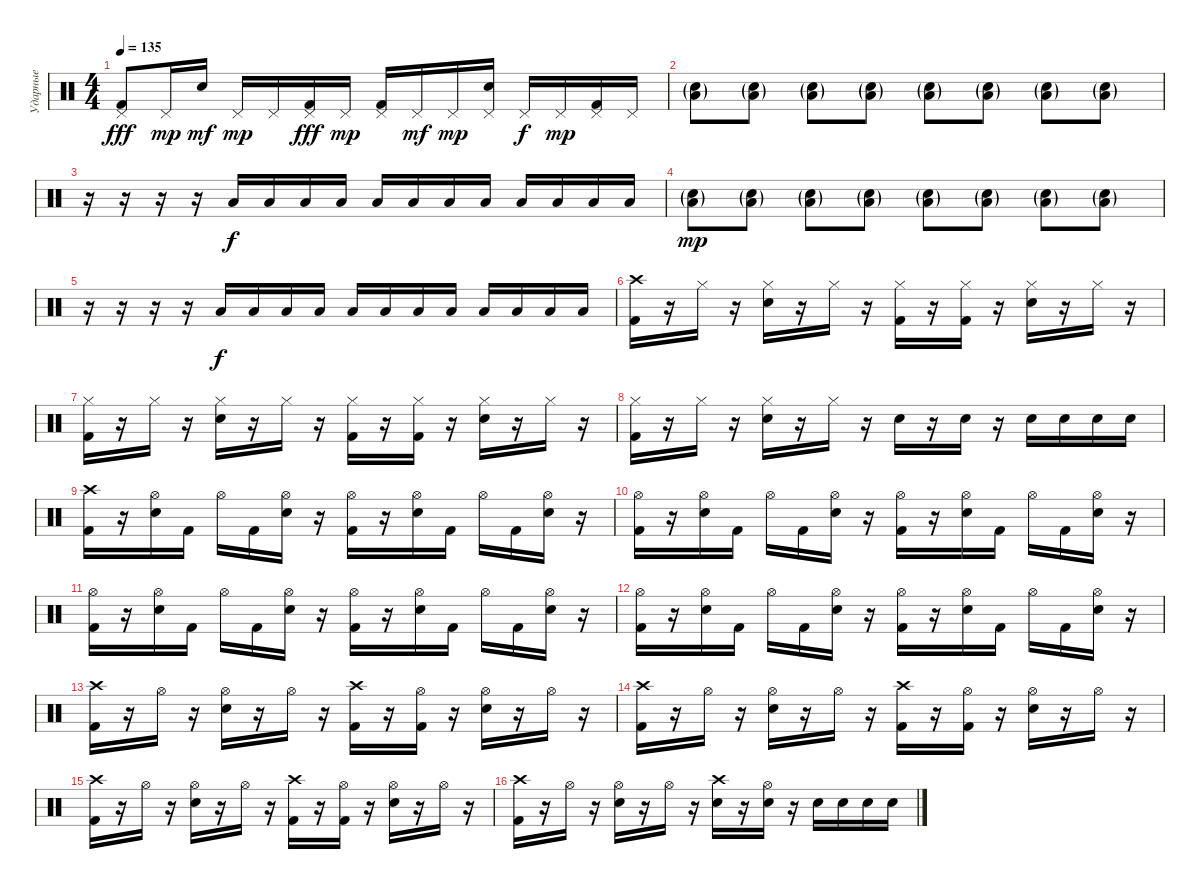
\track ("Ударные" "Ударные") {instrument percussion}
\staff {score}
\articulation defaults
\ts (4 4)
\tempo 135
\clef neutral
\ks c
("Pedal Hi-Hat (hit)" "Kick (hit) 2").8{dy fff volume 16} "Pedal Hi-Hat (hit)".16{dy mp} "Electric Snare (hit)".16{dy mf} "Pedal Hi-Hat (hit)".16{dy mp} "Pedal Hi-Hat (hit)".16 ("Pedal Hi-Hat (hit)" "Kick (hit) 2").16{dy fff} "Pedal Hi-Hat (hit)".16{dy mp} ("Pedal Hi-Hat (hit)" "Kick (hit) 2").16 "Pedal Hi-Hat (hit)".16{dy mf} "Pedal Hi-Hat (hit)".16{dy mp} ("Pedal Hi-Hat (hit)" "Electric Snare (hit)").16 "Pedal Hi-Hat (hit)".16{dy f} "Pedal Hi-Hat (hit)".16{dy mp} ("Pedal Hi-Hat (hit)" "Kick (hit) 2").16 "Pedal Hi-Hat (hit)".16 |
("Low Floor Tom (hit)"{g} "Electric Snare (hit)"{g}).8 ("Low Floor Tom (hit)"{g} "Electric Snare (hit)"{g}).8 ("Low Floor Tom (hit)"{g} "Electric Snare (hit)"{g}).8 ("Low Floor Tom (hit)"{g} "Electric Snare (hit)"{g}).8 ("Low Floor Tom (hit)"{g} "Electric Snare (hit)"{g}).8 ("Low Floor Tom (hit)"{g} "Electric Snare (hit)"{g}).8 ("Low Floor Tom (hit)"{g} "Electric Snare (hit)"{g}).8 ("Low Floor Tom (hit)"{g} "Electric Snare (hit)"{g}).8 |
r.16 r.16 r.16 r.16 "Low Tom (hit)".16{dy f} "Low Tom (hit)".16 "Low Floor Tom (hit)".16 "Low Floor Tom (hit)".16 "Low Floor Tom (hit)".16 "Low Tom (hit)".16 "Low Tom (hit)".16 "Low Tom (hit)".16 "Low Floor Tom (hit)".16 "Low Floor Tom (hit)".16 "Low Floor Tom (hit)".16 "Low Floor Tom (hit)".16 |
("Low Floor Tom (hit)"{g} "Electric Snare (hit)"{g}).8{dy mp} ("Low Floor Tom (hit)"{g} "Electric Snare (hit)"{g}).8 ("Low Floor Tom (hit)"{g} "Electric Snare (hit)"{g}).8 ("Low Floor Tom (hit)"{g} "Electric Snare (hit)"{g}).8 ("Low Floor Tom (hit)"{g} "Electric Snare (hit)"{g}).8 ("Low Floor Tom (hit)"{g} "Electric Snare (hit)"{g}).8 ("Low Floor Tom (hit)"{g} "Electric Snare (hit)"{g}).8 ("Low Floor Tom (hit)"{g} "Electric Snare (hit)"{g}).8 |
r.16 r.16 r.16 r.16 "Low Tom (hit)".16{dy f} "Low Tom (hit)".16 "Low Floor Tom (hit)".16 "Low Floor Tom (hit)".16 "Low Floor Tom (hit)".16 "Low Tom (hit)".16 "Low Tom (hit)".16 "Low Tom (hit)".16 "Low Floor Tom (hit)".16 "Low Floor Tom (hit)".16 "Low Floor Tom (hit)".16 "Low Floor Tom (hit)".16 |
("Crash high (hit)" "Kick (hit) 2").16 r.16 "Hi-Hat (closed)".16 r.16 ("Hi-Hat (closed)" "Electric Snare (hit)").16 r.16 "Hi-Hat (closed)".16 r.16 ("Hi-Hat (closed)" "Kick (hit) 2").16 r.16 ("Hi-Hat (closed)" "Kick (hit) 2").16 r.16 ("Hi-Hat (closed)" "Electric Snare (hit)").16 r.16 "Hi-Hat (closed)".16 r.16 |
("Hi-Hat (closed)" "Kick (hit) 2").16 r.16 "Hi-Hat (closed)".16 r.16 ("Hi-Hat (closed)" "Electric Snare (hit)").16 r.16 "Hi-Hat (closed)".16 r.16 ("Hi-Hat (closed)" "Kick (hit) 2").16 r.16 ("Hi-Hat (closed)" "Kick (hit) 2").16 r.16 ("Hi-Hat (closed)" "Electric Snare (hit)").16 r.16 "Hi-Hat (closed)".16 r.16 |
("Hi-Hat (closed)" "Kick (hit) 2").16 r.16 "Hi-Hat (closed)".16 r.16 ("Hi-Hat (closed)" "Electric Snare (hit)").16 r.16 "Hi-Hat (closed)".16 r.16 "Electric Snare (hit)".16 r.16 "Electric Snare (hit)".16 r.16 "Electric Snare (hit)".16 "Electric Snare (hit)".16 "Electric Snare (hit)".16 "Electric Snare (hit)".16 |
("Crash high (hit)" "Kick (hit) 2").16 r.16 ("Hi-Hat (open)" "Electric Snare (hit)").16 "Kick (hit) 2".16 "Hi-Hat (open)".16 "Kick (hit) 2".16 ("Hi-Hat (open)" "Electric Snare (hit)").16 r.16 ("Hi-Hat (open)" "Kick (hit) 2").16 r.16 ("Hi-Hat (open)" "Electric Snare (hit)").16 "Kick (hit) 2".16 "Hi-Hat (open)".16 "Kick (hit) 2".16 ("Hi-Hat (open)" "Electric Snare (hit)").16 r.16 |
("Hi-Hat (open)" "Kick (hit) 2").16 r.16 ("Hi-Hat (open)" "Electric Snare (hit)").16 "Kick (hit) 2".16 "Hi-Hat (open)".16 "Kick (hit) 2".16 ("Hi-Hat (open)" "Electric Snare (hit)").16 r.16 ("Hi-Hat (open)" "Kick (hit) 2").16 r.16 ("Hi-Hat (open)" "Electric Snare (hit)").16 "Kick (hit) 2".16 "Hi-Hat (open)".16 "Kick (hit) 2".16 ("Hi-Hat (open)" "Electric Snare (hit)").16 r.16 |
("Hi-Hat (open)" "Kick (hit) 2").16 r.16 ("Hi-Hat (open)" "Electric Snare (hit)").16 "Kick (hit) 2".16 "Hi-Hat (open)".16 "Kick (hit) 2".16 ("Hi-Hat (open)" "Electric Snare (hit)").16 r.16 ("Hi-Hat (open)" "Kick (hit) 2").16 r.16 ("Hi-Hat (open)" "Electric Snare (hit)").16 "Kick (hit) 2".16 "Hi-Hat (open)".16 "Kick (hit) 2".16 ("Hi-Hat (open)" "Electric Snare (hit)").16 r.16 |
("Hi-Hat (open)" "Kick (hit) 2").16 r.16 ("Hi-Hat (open)" "Electric Snare (hit)").16 "Kick (hit) 2".16 "Hi-Hat (open)".16 "Kick (hit) 2".16 ("Hi-Hat (open)" "Electric Snare (hit)").16 r.16 ("Hi-Hat (open)" "Kick (hit) 2").16 r.16 ("Hi-Hat (open)" "Electric Snare (hit)").16 "Kick (hit) 2".16 "Hi-Hat (open)".16 "Kick (hit) 2".16 ("Hi-Hat (open)" "Electric Snare (hit)").16 r.16 |
("Crash high (hit)" "Kick (hit) 2").16 r.16 "Hi-Hat (open)".16 r.16 ("Hi-Hat (open)" "Electric Snare (hit)").16 r.16 "Hi-Hat (open)".16 r.16 ("Crash high (hit)" "Kick (hit) 2").16 r.16 ("Hi-Hat (open)" "Kick (hit) 2").16 r.16 ("Hi-Hat (open)" "Electric Snare (hit)").16 r.16 "Hi-Hat (open)".16 r.16 |
("Crash high (hit)" "Kick (hit) 2").16 r.16 "Hi-Hat (open)".16 r.16 ("Hi-Hat (open)" "Electric Snare (hit)").16 r.16 "Hi-Hat (open)".16 r.16 ("Crash high (hit)" "Kick (hit) 2").16 r.16 ("Hi-Hat (open)" "Kick (hit) 2").16 r.16 ("Hi-Hat (open)" "Electric Snare (hit)").16 r.16 "Hi-Hat (open)".16 r.16 |
("Crash high (hit)" "Kick (hit) 2").16 r.16 "Hi-Hat (open)".16 r.16 ("Hi-Hat (open)" "Electric Snare (hit)").16 r.16 "Hi-Hat (open)".16 r.16 ("Crash high (hit)" "Kick (hit) 2").16 r.16 ("Hi-Hat (open)" "Kick (hit) 2").16 r.16 ("Hi-Hat (open)" "Electric Snare (hit)").16 r.16 "Hi-Hat (open)".16 r.16 |
("Crash high (hit)" "Kick (hit) 2").16 r.16 "Hi-Hat (open)".16 r.16 ("Hi-Hat (open)" "Electric Snare (hit)").16 r.16 "Hi-Hat (open)".16 r.16 ("Crash high (hit)" "Electric Snare (hit)").16 r.16 ("Hi-Hat (open)" "Electric Snare (hit)").16 r.16 "Electric Snare (hit)".16 "Electric Snare (hit)".16 "Electric Snare (hit)".16 "Electric Snare (hit)".16
